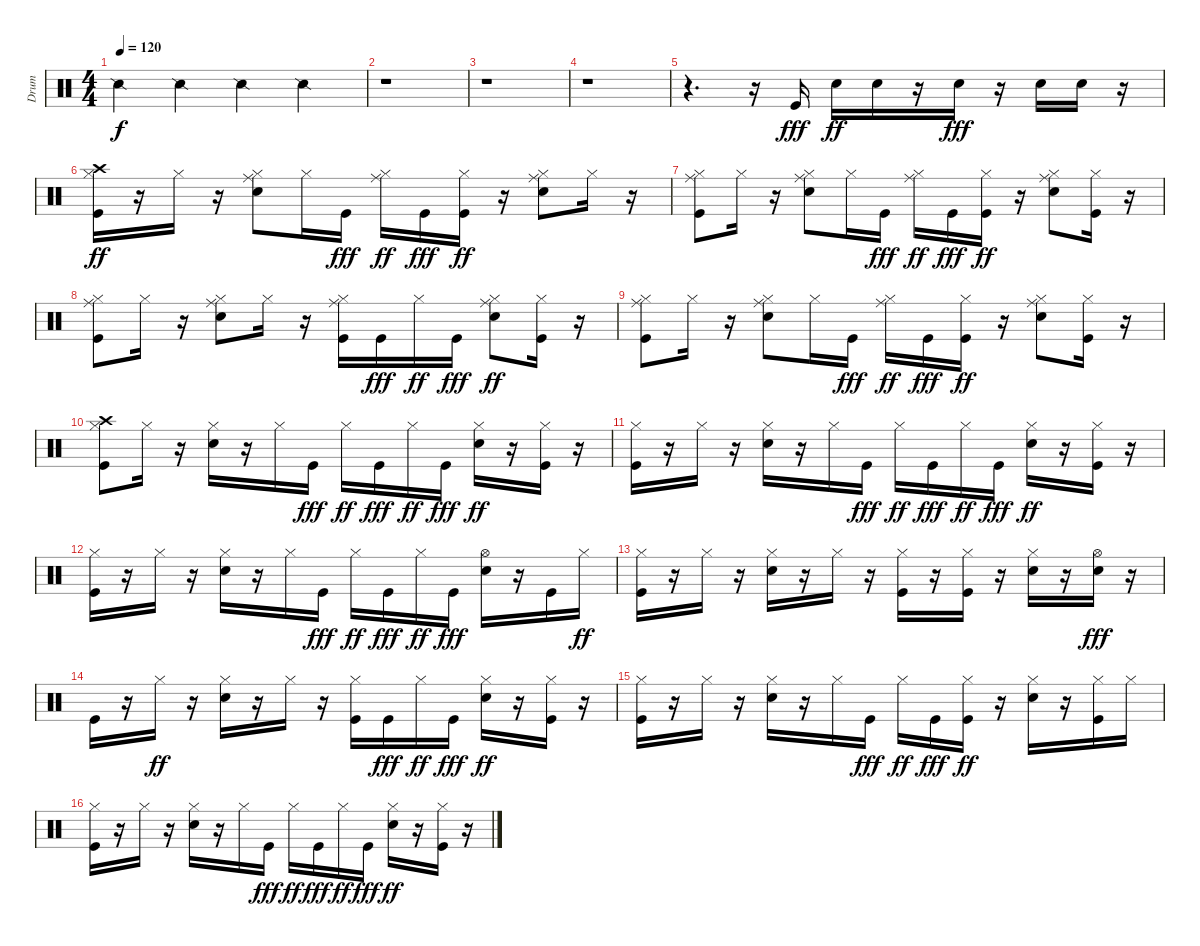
\track ("Drum" "Drum") {instrument percussion}
\staff {score}
\articulation defaults
\ts (4 4)
\tempo 120
\clef neutral
\ks c "Snare (side stick) 2".4{dy f} "Snare (side stick) 2".4 "Snare (side stick) 2".4 "Snare (side stick) 2".4
|
r.1 |
r.1 |
r.1 |
r.4{d} r.16 "Kick (hit)".16{dy fff} "Electric Snare (hit)".16{dy ff} "Electric Snare (hit)".16 r.16 "Electric Snare (hit)".16{dy fff} r.16 "Electric Snare (hit)".16 "Electric Snare (hit)".16 r.16 |
("Crash high (hit)" "Kick (hit)" "Hi-Hat (closed)").16{dy ff} r.16 "Hi-Hat (closed)".16 r.16 ("Electric Snare (hit)" "Hi-Hat (closed)" "Ride (middle)").8 "Hi-Hat (closed)".16 "Kick (hit)".16{dy fff} ("Hi-Hat (closed)" "Ride (middle)").16{dy ff} "Kick (hit)".16{dy fff} ("Kick (hit)" "Hi-Hat (closed)").16{dy ff} r.16 ("Electric Snare (hit)" "Hi-Hat (closed)" "Ride (middle)").8 "Hi-Hat (closed)".16 r.16 |
("Kick (hit)" "Hi-Hat (closed)" "Ride (middle)").8 "Hi-Hat (closed)".16 r.16 ("Electric Snare (hit)" "Hi-Hat (closed)" "Ride (middle)").8 "Hi-Hat (closed)".16 "Kick (hit)".16{dy fff} ("Hi-Hat (closed)" "Ride (middle)").16{dy ff} "Kick (hit)".16{dy fff} ("Kick (hit)" "Hi-Hat (closed)").16{dy ff} r.16 ("Electric Snare (hit)" "Hi-Hat (closed)" "Ride (middle)").8 ("Kick (hit)" "Hi-Hat (closed)").16 r.16 |
("Kick (hit)" "Hi-Hat (closed)" "Ride (middle)").8 "Hi-Hat (closed)".16 r.16 ("Electric Snare (hit)" "Hi-Hat (closed)" "Ride (middle)").8 "Hi-Hat (closed)".16 r.16 ("Kick (hit)" "Hi-Hat (closed)" "Ride (middle)").16 "Kick (hit)".16{dy fff} "Hi-Hat (closed)".16{dy ff} "Kick (hit)".16{dy fff} ("Electric Snare (hit)" "Hi-Hat (closed)" "Ride (middle)").8{dy ff} ("Kick (hit)" "Hi-Hat (closed)").16 r.16 |
("Kick (hit)" "Hi-Hat (closed)" "Ride (middle)").8 "Hi-Hat (closed)".16 r.16 ("Electric Snare (hit)" "Hi-Hat (closed)" "Ride (middle)").8 "Hi-Hat (closed)".16 "Kick (hit)".16{dy fff} ("Hi-Hat (closed)" "Ride (middle)").16{dy ff} "Kick (hit)".16{dy fff} ("Kick (hit)" "Hi-Hat (closed)").16{dy ff} r.16 ("Electric Snare (hit)" "Hi-Hat (closed)" "Ride (middle)").8 ("Kick (hit)" "Hi-Hat (closed)").16 r.16 |
("Crash high (hit)" "Kick (hit)" "Hi-Hat (closed)").8 "Hi-Hat (closed)".16 r.16 ("Electric Snare (hit)" "Hi-Hat (closed)").16 r.16 "Hi-Hat (closed)".16 "Kick (hit)".16{dy fff} "Hi-Hat (closed)".16{dy ff} "Kick (hit)".16{dy fff} "Hi-Hat (closed)".16{dy ff} "Kick (hit)".16{dy fff} ("Electric Snare (hit)" "Hi-Hat (closed)").16{dy ff} r.16 ("Kick (hit)" "Hi-Hat (closed)").16 r.16 |
("Kick (hit)" "Hi-Hat (closed)").16 r.16 "Hi-Hat (closed)".16 r.16 ("Electric Snare (hit)" "Hi-Hat (closed)").16 r.16 "Hi-Hat (closed)".16 "Kick (hit)".16{dy fff} "Hi-Hat (closed)".16{dy ff} "Kick (hit)".16{dy fff} "Hi-Hat (closed)".16{dy ff} "Kick (hit)".16{dy fff} ("Electric Snare (hit)" "Hi-Hat (closed)").16{dy ff} r.16 ("Kick (hit)" "Hi-Hat (closed)").16 r.16 |
("Kick (hit)" "Hi-Hat (closed)").16 r.16 "Hi-Hat (closed)".16 r.16 ("Electric Snare (hit)" "Hi-Hat (closed)").16 r.16 "Hi-Hat (closed)".16 "Kick (hit)".16{dy fff} "Hi-Hat (closed)".16{dy ff} "Kick (hit)".16{dy fff} "Hi-Hat (closed)".16{dy ff} "Kick (hit)".16{dy fff} ("Hi-Hat (open)" "Electric Snare (hit)").16 r.16 "Kick (hit)".16 "Hi-Hat (closed)".16{dy ff} |
("Kick (hit)" "Hi-Hat (closed)").16 r.16 "Hi-Hat (closed)".16 r.16 ("Electric Snare (hit)" "Hi-Hat (closed)").16 r.16 "Hi-Hat (closed)".16 r.16 ("Kick (hit)" "Hi-Hat (closed)").16 r.16 ("Kick (hit)" "Hi-Hat (closed)").16 r.16 ("Electric Snare (hit)" "Hi-Hat (closed)").16 r.16 ("Hi-Hat (open)" "Electric Snare (hit)").16{dy fff} r.16 |
"Kick (hit)".16 r.16 "Hi-Hat (closed)".16{dy ff} r.16 ("Electric Snare (hit)" "Hi-Hat (closed)").16 r.16 "Hi-Hat (closed)".16 r.16 ("Kick (hit)" "Hi-Hat (closed)").16 "Kick (hit)".16{dy fff} "Hi-Hat (closed)".16{dy ff} "Kick (hit)".16{dy fff} ("Electric Snare (hit)" "Hi-Hat (closed)").16{dy ff} r.16 ("Kick (hit)" "Hi-Hat (closed)").16 r.16 |
("Kick (hit)" "Hi-Hat (closed)").16 r.16 "Hi-Hat (closed)".16 r.16 ("Electric Snare (hit)" "Hi-Hat (closed)").16 r.16 "Hi-Hat (closed)".16 "Kick (hit)".16{dy fff} "Hi-Hat (closed)".16{dy ff} "Kick (hit)".16{dy fff} ("Kick (hit)" "Hi-Hat (closed)").16{dy ff} r.16 ("Electric Snare (hit)" "Hi-Hat (closed)").16 r.16 ("Kick (hit)" "Hi-Hat (closed)").16 "Hi-Hat (closed)".16 |
("Kick (hit)" "Hi-Hat (closed)").16 r.16 "Hi-Hat (closed)".16 r.16 ("Electric Snare (hit)" "Hi-Hat (closed)").16 r.16 "Hi-Hat (closed)".16 "Kick (hit)".16{dy fff} "Hi-Hat (closed)".16{dy ff} "Kick (hit)".16{dy fff} "Hi-Hat (closed)".16{dy ff} "Kick (hit)".16{dy fff} ("Electric Snare (hit)" "Hi-Hat (closed)").16{dy ff} r.16 ("Kick (hit)" "Hi-Hat (closed)").16 r.16
